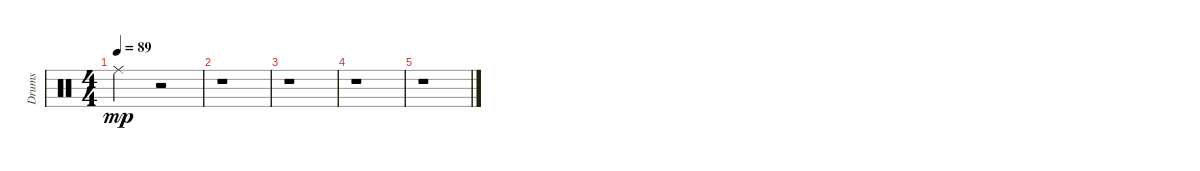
\track ("Drums" "Drums") {instrument percussion}
\staff {score}
\articulation defaults
\ts (4 4)
\tempo 89
\clef neutral
\ks c "Ride (middle)".2{dy mp}
r.2 |
r.1 |
r.1 |
r.1 |
r.1
